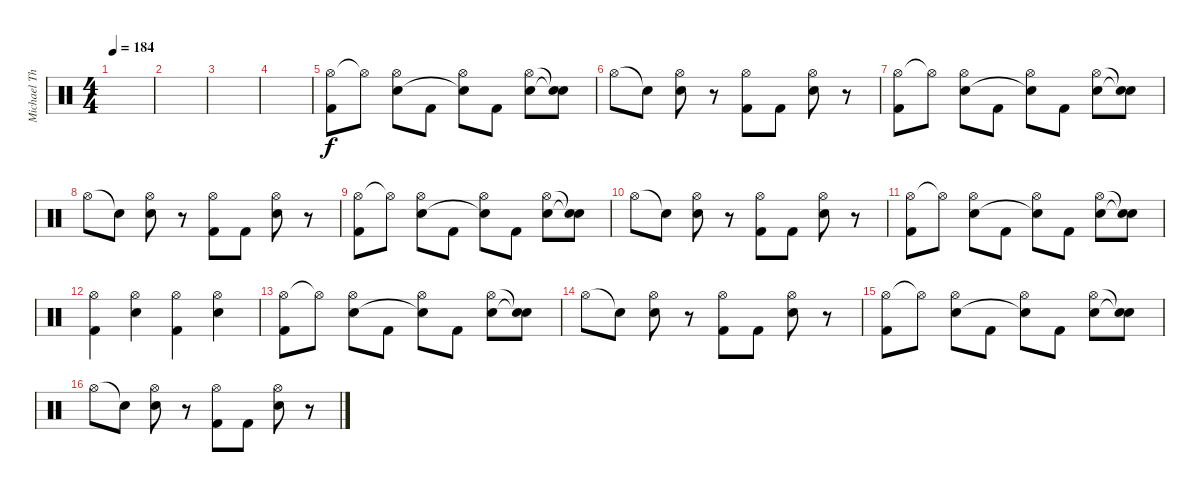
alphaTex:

\track ("Michael Thomas" "Michael Th") {instrument percussion}
\staff {score}
\articulation defaults
\ts (4 4)
\tempo 184
\clef neutral
\ks c
|
|
|
|
("Hi-Hat (open)" "Kick (hit) 2").8 "Hi-Hat (open)"{t}.8 ("Hi-Hat (open)" "Electric Snare (hit)").8 "Kick (hit) 2".8 ("Hi-Hat (open)" "Snare (hit)"{t}).8 "Kick (hit) 2".8 ("Hi-Hat (open)" "Electric Snare (hit)").8 ("Snare (hit)"{t} "Snare (hit)"{t}).8 |
"Hi-Hat (open)".8 "Snare (hit)"{t}.8 ("Hi-Hat (open)" "Electric Snare (hit)").8 r.8 ("Hi-Hat (open)" "Kick (hit) 2").8 "Kick (hit) 2".8 ("Hi-Hat (open)" "Electric Snare (hit)").8 r.8 |
("Hi-Hat (open)" "Kick (hit) 2").8 "Hi-Hat (open)"{t}.8 ("Hi-Hat (open)" "Electric Snare (hit)").8 "Kick (hit) 2".8 ("Hi-Hat (open)" "Snare (hit)"{t}).8 "Kick (hit) 2".8 ("Hi-Hat (open)" "Electric Snare (hit)").8 ("Snare (hit)"{t} "Snare (hit)"{t}).8 |
"Hi-Hat (open)".8 "Snare (hit)"{t}.8 ("Hi-Hat (open)" "Electric Snare (hit)").8 r.8 ("Hi-Hat (open)" "Kick (hit) 2").8 "Kick (hit) 2".8 ("Hi-Hat (open)" "Electric Snare (hit)").8 r.8 |
("Hi-Hat (open)" "Kick (hit) 2").8 "Hi-Hat (open)"{t}.8 ("Hi-Hat (open)" "Electric Snare (hit)").8 "Kick (hit) 2".8 ("Hi-Hat (open)" "Snare (hit)"{t}).8 "Kick (hit) 2".8 ("Hi-Hat (open)" "Electric Snare (hit)").8 ("Snare (hit)"{t} "Snare (hit)"{t}).8 |
"Hi-Hat (open)".8 "Snare (hit)"{t}.8 ("Hi-Hat (open)" "Electric Snare (hit)").8 r.8 ("Hi-Hat (open)" "Kick (hit) 2").8 "Kick (hit) 2".8 ("Hi-Hat (open)" "Electric Snare (hit)").8 r.8 |
("Hi-Hat (open)" "Kick (hit) 2").8 "Hi-Hat (open)"{t}.8 ("Hi-Hat (open)" "Electric Snare (hit)").8 "Kick (hit) 2".8 ("Hi-Hat (open)" "Snare (hit)"{t}).8 "Kick (hit) 2".8 ("Hi-Hat (open)" "Electric Snare (hit)").8 ("Snare (hit)"{t} "Snare (hit)"{t}).8 |
("Hi-Hat (open)" "Kick (hit) 2").4 ("Hi-Hat (open)" "Electric Snare (hit)").4 ("Hi-Hat (open)" "Kick (hit) 2").4 ("Hi-Hat (open)" "Electric Snare (hit)").4 |
("Hi-Hat (open)" "Kick (hit) 2").8 "Hi-Hat (open)"{t}.8 ("Hi-Hat (open)" "Electric Snare (hit)").8 "Kick (hit) 2".8 ("Hi-Hat (open)" "Snare (hit)"{t}).8 "Kick (hit) 2".8 ("Hi-Hat (open)" "Electric Snare (hit)").8 ("Snare (hit)"{t} "Snare (hit)"{t}).8 |
"Hi-Hat (open)".8 "Snare (hit)"{t}.8 ("Hi-Hat (open)" "Electric Snare (hit)").8 r.8 ("Hi-Hat (open)" "Kick (hit) 2").8 "Kick (hit) 2".8 ("Hi-Hat (open)" "Electric Snare (hit)").8 r.8 |
("Hi-Hat (open)" "Kick (hit) 2").8 "Hi-Hat (open)"{t}.8 ("Hi-Hat (open)" "Electric Snare (hit)").8 "Kick (hit) 2".8 ("Hi-Hat (open)" "Snare (hit)"{t}).8 "Kick (hit) 2".8 ("Hi-Hat (open)" "Electric Snare (hit)").8 ("Snare (hit)"{t} "Snare (hit)"{t}).8 |
"Hi-Hat (open)".8 "Snare (hit)"{t}.8 ("Hi-Hat (open)" "Electric Snare (hit)").8 r.8 ("Hi-Hat (open)" "Kick (hit) 2").8 "Kick (hit) 2".8 ("Hi-Hat (open)" "Electric Snare (hit)").8 r.8
